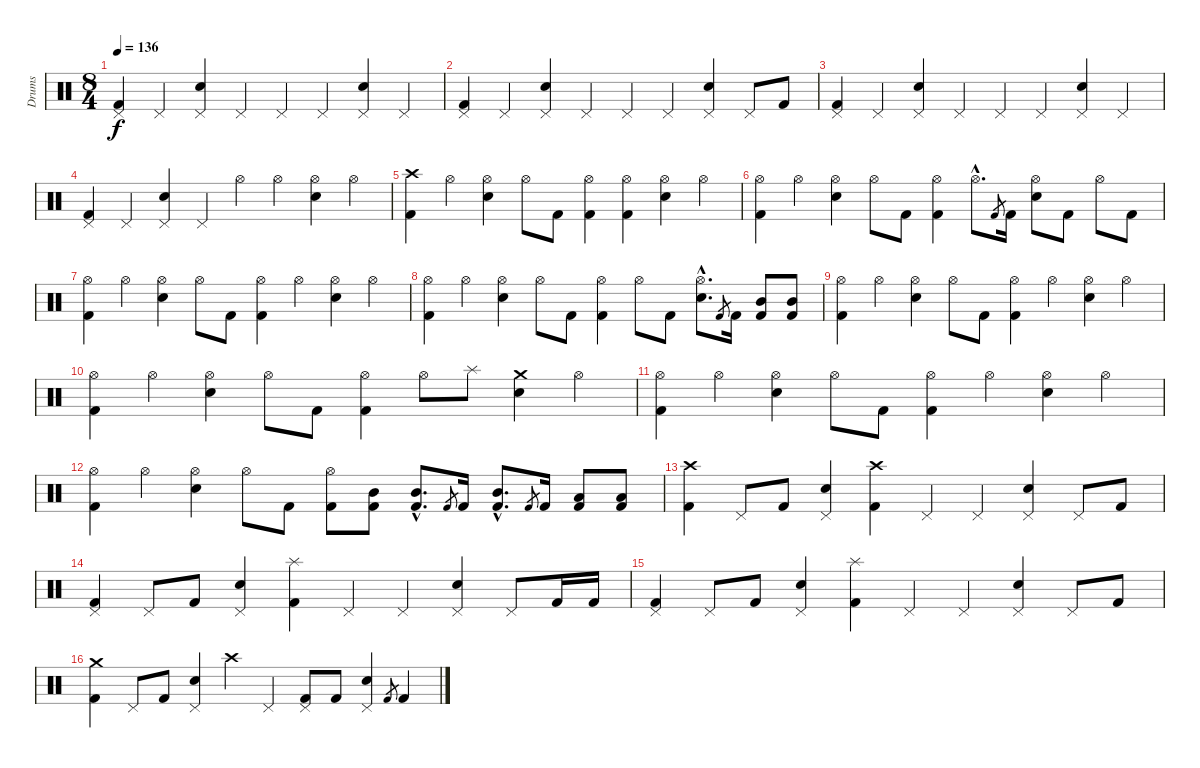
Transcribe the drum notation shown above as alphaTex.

\track ("Drums" "Drums") {instrument percussion}
\staff {score}
\articulation defaults
\ts (8 4)
\tempo 136
\clef neutral
\ks c
("Pedal Hi-Hat (hit)" "Kick (hit) 2").4{dy f} "Pedal Hi-Hat (hit)".4 ("Pedal Hi-Hat (hit)" "Snare (hit) 2").4 "Pedal Hi-Hat (hit)".4 "Pedal Hi-Hat (hit)".4 "Pedal Hi-Hat (hit)".4 ("Pedal Hi-Hat (hit)" "Snare (hit) 2").4 "Pedal Hi-Hat (hit)".4 |
("Pedal Hi-Hat (hit)" "Kick (hit) 2").4 "Pedal Hi-Hat (hit)".4 ("Pedal Hi-Hat (hit)" "Snare (hit) 2").4 "Pedal Hi-Hat (hit)".4 "Pedal Hi-Hat (hit)".4 "Pedal Hi-Hat (hit)".4 ("Pedal Hi-Hat (hit)" "Snare (hit) 2").4 "Pedal Hi-Hat (hit)".8 "Kick (hit) 2".8 |
("Pedal Hi-Hat (hit)" "Kick (hit) 2").4 "Pedal Hi-Hat (hit)".4 ("Pedal Hi-Hat (hit)" "Snare (hit) 2").4 "Pedal Hi-Hat (hit)".4 "Pedal Hi-Hat (hit)".4 "Pedal Hi-Hat (hit)".4 ("Pedal Hi-Hat (hit)" "Snare (hit) 2").4 "Pedal Hi-Hat (hit)".4 |
("Pedal Hi-Hat (hit)" "Kick (hit) 2").4 "Pedal Hi-Hat (hit)".4 ("Pedal Hi-Hat (hit)" "Snare (hit) 2").4 "Pedal Hi-Hat (hit)".4 "Hi-Hat (open)".4 "Hi-Hat (open)".4 ("Hi-Hat (open)" "Snare (hit) 2").4 "Hi-Hat (open)".4 |
("Crash high (hit)" "Kick (hit) 2").4 "Hi-Hat (open)".4 ("Hi-Hat (open)" "Snare (hit) 2").4 "Hi-Hat (open)".8 "Kick (hit) 2".8 ("Hi-Hat (open)" "Kick (hit) 2").4 ("Hi-Hat (open)" "Kick (hit) 2").4 ("Hi-Hat (open)" "Snare (hit) 2").4 "Hi-Hat (open)".4 |
("Hi-Hat (open)" "Kick (hit) 2").4 "Hi-Hat (open)".4 ("Hi-Hat (open)" "Snare (hit) 2").4 "Hi-Hat (open)".8 "Kick (hit) 2".8 ("Hi-Hat (open)" "Kick (hit) 2").4 "Hi-Hat (open)"{hac}.8{d} "Kick (hit) 2".8{gr} "Kick (hit) 2".16 ("Hi-Hat (open)" "Snare (hit) 2").8 "Kick (hit) 2".8 "Hi-Hat (open)".8 "Kick (hit) 2".8 |
("Hi-Hat (open)" "Kick (hit) 2").4 "Hi-Hat (open)".4 ("Hi-Hat (open)" "Snare (hit) 2").4 "Hi-Hat (open)".8 "Kick (hit) 2".8 ("Hi-Hat (open)" "Kick (hit) 2").4 "Hi-Hat (open)".4 ("Hi-Hat (open)" "Snare (hit) 2").4 "Hi-Hat (open)".4 |
("Hi-Hat (open)" "Kick (hit) 2").4 "Hi-Hat (open)".4 ("Hi-Hat (open)" "Snare (hit) 2").4 "Hi-Hat (open)".8 "Kick (hit) 2".8 ("Hi-Hat (open)" "Kick (hit) 2").4 "Hi-Hat (open)".8 "Kick (hit) 2".8 ("Hi-Hat (open)"{hac} "Snare (hit) 2"{hac}).8{d} "Kick (hit) 2".8{gr} "Kick (hit) 2".16 ("Mid Tom (hit)" "Kick (hit) 2").8 ("Mid Tom (hit)" "Kick (hit) 2").8 |
("Hi-Hat (open)" "Kick (hit) 2").4 "Hi-Hat (open)".4 ("Hi-Hat (open)" "Snare (hit) 2").4 "Hi-Hat (open)".8 "Kick (hit) 2".8 ("Hi-Hat (open)" "Kick (hit) 2").4 "Hi-Hat (open)".4 ("Hi-Hat (open)" "Snare (hit) 2").4 "Hi-Hat (open)".4 |
("Hi-Hat (open)" "Kick (hit) 2").4 "Hi-Hat (open)".4 ("Hi-Hat (open)" "Snare (hit) 2").4 "Hi-Hat (open)".8 "Kick (hit) 2".8 ("Hi-Hat (open)" "Kick (hit) 2").4 "Hi-Hat (open)".8 "Splash (hit)".8 ("Crash medium (hit)" "Snare (hit) 2").4 "Hi-Hat (open)".4 |
("Hi-Hat (open)" "Kick (hit) 2").4 "Hi-Hat (open)".4 ("Hi-Hat (open)" "Snare (hit) 2").4 "Hi-Hat (open)".8 "Kick (hit) 2".8 ("Hi-Hat (open)" "Kick (hit) 2").4 "Hi-Hat (open)".4 ("Hi-Hat (open)" "Snare (hit) 2").4 "Hi-Hat (open)".4 |
("Hi-Hat (open)" "Kick (hit) 2").4 "Hi-Hat (open)".4 ("Hi-Hat (open)" "Snare (hit) 2").4 "Hi-Hat (open)".8 "Kick (hit) 2".8 ("Hi-Hat (open)" "Kick (hit) 2").8 ("Mid Tom (hit)" "Kick (hit) 2").8 ("Mid Tom (hit)"{hac} "Kick (hit) 2"{hac}).8{d} "Kick (hit) 2".8{gr} "Kick (hit) 2".16 ("Mid Tom (hit)"{hac} "Kick (hit) 2"{hac}).8{d} "Kick (hit) 2".8{gr} "Kick (hit) 2".16 ("Low Tom (hit)" "Kick (hit) 2").8 ("Low Tom (hit)" "Kick (hit) 2").8 |
("Crash high (hit)" "Kick (hit) 2").4 "Pedal Hi-Hat (hit)".8 "Kick (hit) 2".8 ("Pedal Hi-Hat (hit)" "Snare (hit) 2").4 ("Crash high (hit)" "Kick (hit) 2").4 "Pedal Hi-Hat (hit)".4 "Pedal Hi-Hat (hit)".4 ("Pedal Hi-Hat (hit)" "Snare (hit) 2").4 "Pedal Hi-Hat (hit)".8 "Kick (hit) 2".8 |
("Pedal Hi-Hat (hit)" "Kick (hit) 2").4 "Pedal Hi-Hat (hit)".8 "Kick (hit) 2".8 ("Pedal Hi-Hat (hit)" "Snare (hit) 2").4 ("Splash (hit)" "Kick (hit) 2").4 "Pedal Hi-Hat (hit)".4 "Pedal Hi-Hat (hit)".4 ("Pedal Hi-Hat (hit)" "Snare (hit) 2").4 "Pedal Hi-Hat (hit)".8 "Kick (hit) 2".16 "Kick (hit) 2".16 |
("Pedal Hi-Hat (hit)" "Kick (hit) 2").4 "Pedal Hi-Hat (hit)".8 "Kick (hit) 2".8 ("Pedal Hi-Hat (hit)" "Snare (hit) 2").4 ("Splash (hit)" "Kick (hit) 2").4 "Pedal Hi-Hat (hit)".4 "Pedal Hi-Hat (hit)".4 ("Pedal Hi-Hat (hit)" "Snare (hit) 2").4 "Pedal Hi-Hat (hit)".8 "Kick (hit) 2".8 |
("Crash medium (hit)" "Kick (hit) 2").4 "Pedal Hi-Hat (hit)".8 "Kick (hit) 2".8 ("Pedal Hi-Hat (hit)" "Snare (hit) 2").4 "Crash high (hit)".4 "Pedal Hi-Hat (hit)".4 ("Pedal Hi-Hat (hit)" "Kick (hit) 2").8 "Kick (hit) 2".8 ("Pedal Hi-Hat (hit)" "Snare (hit) 2").4 "Kick (hit) 2".8{gr} "Kick (hit) 2".4
